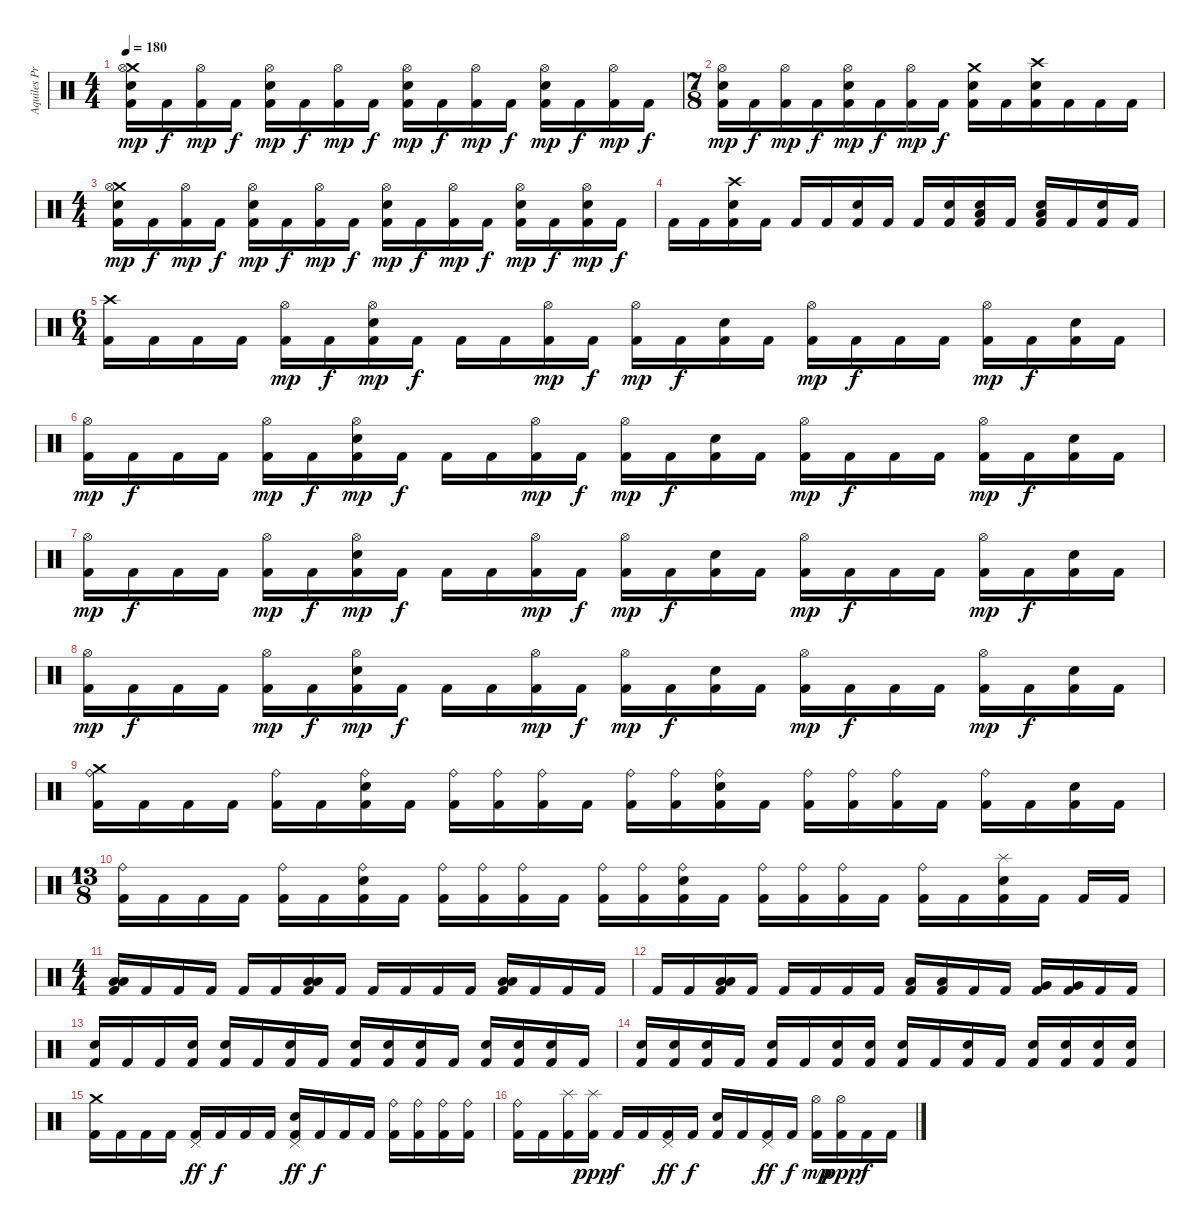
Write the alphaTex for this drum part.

\track ("Aquiles Priester" "Aquiles Pr") {instrument percussion}
\staff {score}
\articulation defaults
\ts (4 4)
\tempo 180
\clef neutral
\ks c
("Crash medium (hit)" "Hi-Hat (open)" "Snare (hit) 2" "Kick (hit) 2").16{dy mp} "Kick (hit) 2".16{dy f} ("Hi-Hat (open)" "Kick (hit) 2").16{dy mp} "Kick (hit) 2".16{dy f} ("Hi-Hat (open)" "Snare (hit) 2" "Kick (hit) 2").16{dy mp} "Kick (hit) 2".16{dy f} ("Hi-Hat (open)" "Kick (hit) 2").16{dy mp} "Kick (hit) 2".16{dy f} ("Hi-Hat (open)" "Snare (hit) 2" "Kick (hit) 2").16{dy mp} "Kick (hit) 2".16{dy f} ("Hi-Hat (open)" "Kick (hit) 2").16{dy mp} "Kick (hit) 2".16{dy f} ("Hi-Hat (open)" "Snare (hit) 2" "Kick (hit) 2").16{dy mp} "Kick (hit) 2".16{dy f} ("Hi-Hat (open)" "Kick (hit) 2").16{dy mp} "Kick (hit) 2".16{dy f} |
\ts (7 8)
("Hi-Hat (open)" "Snare (hit) 2" "Kick (hit) 2").16{dy mp} "Kick (hit) 2".16{dy f} ("Hi-Hat (open)" "Kick (hit) 2").16{dy mp} "Kick (hit) 2".16{dy f} ("Hi-Hat (open)" "Snare (hit) 2" "Kick (hit) 2").16{dy mp} "Kick (hit) 2".16{dy f} ("Hi-Hat (open)" "Kick (hit) 2").16{dy mp} "Kick (hit) 2".16{dy f} ("Crash medium (hit)" "Snare (hit) 2" "Kick (hit) 2").16 "Kick (hit) 2".16 ("Crash high (hit)" "Snare (hit) 2" "Kick (hit) 2").16 "Kick (hit) 2".16 "Kick (hit) 2".16 "Kick (hit) 2".16 |
\ts (4 4)
("Crash medium (hit)" "Hi-Hat (open)" "Snare (hit) 2" "Kick (hit) 2").16{dy mp} "Kick (hit) 2".16{dy f} ("Hi-Hat (open)" "Kick (hit) 2").16{dy mp} "Kick (hit) 2".16{dy f} ("Hi-Hat (open)" "Snare (hit) 2" "Kick (hit) 2").16{dy mp} "Kick (hit) 2".16{dy f} ("Hi-Hat (open)" "Kick (hit) 2").16{dy mp} "Kick (hit) 2".16{dy f} ("Hi-Hat (open)" "Snare (hit) 2" "Kick (hit) 2").16{dy mp} "Kick (hit) 2".16{dy f} ("Hi-Hat (open)" "Kick (hit) 2").16{dy mp} "Kick (hit) 2".16{dy f} ("Hi-Hat (open)" "Snare (hit) 2" "Kick (hit) 2").16{dy mp} "Kick (hit) 2".16{dy f} ("Hi-Hat (open)" "Snare (hit) 2" "Kick (hit) 2").16{dy mp} "Kick (hit) 2".16{dy f} |
"Kick (hit) 2".16 "Kick (hit) 2".16 ("Crash high (hit)" "Snare (hit) 2" "Kick (hit) 2").16 "Kick (hit) 2".16 "Kick (hit) 2".16 "Kick (hit) 2".16 ("Snare (hit) 2" "Kick (hit) 2").16 "Kick (hit) 2".16 "Kick (hit) 2".16 ("Snare (hit) 2" "Kick (hit) 2").16 ("Low Tom (hit)" "Snare (hit) 2" "Kick (hit) 2").16 "Kick (hit) 2".16 ("Low Tom (hit)" "Snare (hit) 2" "Kick (hit) 2").16 "Kick (hit) 2".16 ("Snare (hit) 2" "Kick (hit) 2").16 "Kick (hit) 2".16 |
\ts (6 4)
("Crash high (hit)" "Kick (hit) 2").16 "Kick (hit) 2".16 "Kick (hit) 2".16 "Kick (hit) 2".16 ("Hi-Hat (open)" "Kick (hit) 2").16{dy mp} "Kick (hit) 2".16{dy f} ("Hi-Hat (open)" "Snare (hit) 2" "Kick (hit) 2").16{dy mp} "Kick (hit) 2".16{dy f} "Kick (hit) 2".16 "Kick (hit) 2".16 ("Hi-Hat (open)" "Kick (hit) 2").16{dy mp} "Kick (hit) 2".16{dy f} ("Hi-Hat (open)" "Kick (hit) 2").16{dy mp} "Kick (hit) 2".16{dy f} ("Snare (hit) 2" "Kick (hit) 2").16 "Kick (hit) 2".16 ("Hi-Hat (open)" "Kick (hit) 2").16{dy mp} "Kick (hit) 2".16{dy f} "Kick (hit) 2".16 "Kick (hit) 2".16 ("Hi-Hat (open)" "Kick (hit) 2").16{dy mp} "Kick (hit) 2".16{dy f} ("Snare (hit) 2" "Kick (hit) 2").16 "Kick (hit) 2".16 |
("Hi-Hat (open)" "Kick (hit) 2").16{dy mp} "Kick (hit) 2".16{dy f} "Kick (hit) 2".16 "Kick (hit) 2".16 ("Hi-Hat (open)" "Kick (hit) 2").16{dy mp} "Kick (hit) 2".16{dy f} ("Hi-Hat (open)" "Snare (hit) 2" "Kick (hit) 2").16{dy mp} "Kick (hit) 2".16{dy f} "Kick (hit) 2".16 "Kick (hit) 2".16 ("Hi-Hat (open)" "Kick (hit) 2").16{dy mp} "Kick (hit) 2".16{dy f} ("Hi-Hat (open)" "Kick (hit) 2").16{dy mp} "Kick (hit) 2".16{dy f} ("Snare (hit) 2" "Kick (hit) 2").16 "Kick (hit) 2".16 ("Hi-Hat (open)" "Kick (hit) 2").16{dy mp} "Kick (hit) 2".16{dy f} "Kick (hit) 2".16 "Kick (hit) 2".16 ("Hi-Hat (open)" "Kick (hit) 2").16{dy mp} "Kick (hit) 2".16{dy f} ("Snare (hit) 2" "Kick (hit) 2").16 "Kick (hit) 2".16 |
("Hi-Hat (open)" "Kick (hit) 2").16{dy mp} "Kick (hit) 2".16{dy f} "Kick (hit) 2".16 "Kick (hit) 2".16 ("Hi-Hat (open)" "Kick (hit) 2").16{dy mp} "Kick (hit) 2".16{dy f} ("Hi-Hat (open)" "Snare (hit) 2" "Kick (hit) 2").16{dy mp} "Kick (hit) 2".16{dy f} "Kick (hit) 2".16 "Kick (hit) 2".16 ("Hi-Hat (open)" "Kick (hit) 2").16{dy mp} "Kick (hit) 2".16{dy f} ("Hi-Hat (open)" "Kick (hit) 2").16{dy mp} "Kick (hit) 2".16{dy f} ("Snare (hit) 2" "Kick (hit) 2").16 "Kick (hit) 2".16 ("Hi-Hat (open)" "Kick (hit) 2").16{dy mp} "Kick (hit) 2".16{dy f} "Kick (hit) 2".16 "Kick (hit) 2".16 ("Hi-Hat (open)" "Kick (hit) 2").16{dy mp} "Kick (hit) 2".16{dy f} ("Snare (hit) 2" "Kick (hit) 2").16 "Kick (hit) 2".16 |
("Hi-Hat (open)" "Kick (hit) 2").16{dy mp} "Kick (hit) 2".16{dy f} "Kick (hit) 2".16 "Kick (hit) 2".16 ("Hi-Hat (open)" "Kick (hit) 2").16{dy mp} "Kick (hit) 2".16{dy f} ("Hi-Hat (open)" "Snare (hit) 2" "Kick (hit) 2").16{dy mp} "Kick (hit) 2".16{dy f} "Kick (hit) 2".16 "Kick (hit) 2".16 ("Hi-Hat (open)" "Kick (hit) 2").16{dy mp} "Kick (hit) 2".16{dy f} ("Hi-Hat (open)" "Kick (hit) 2").16{dy mp} "Kick (hit) 2".16{dy f} ("Snare (hit) 2" "Kick (hit) 2").16 "Kick (hit) 2".16 ("Hi-Hat (open)" "Kick (hit) 2").16{dy mp} "Kick (hit) 2".16{dy f} "Kick (hit) 2".16 "Kick (hit) 2".16 ("Hi-Hat (open)" "Kick (hit) 2").16{dy mp} "Kick (hit) 2".16{dy f} ("Snare (hit) 2" "Kick (hit) 2").16 "Kick (hit) 2".16 |
("Crash medium (hit)" "Ride (bell)" "Kick (hit) 2").16 "Kick (hit) 2".16 "Kick (hit) 2".16 "Kick (hit) 2".16 ("Ride (bell)" "Kick (hit) 2").16 "Kick (hit) 2".16 ("Ride (bell)" "Snare (hit) 2" "Kick (hit) 2").16 "Kick (hit) 2".16 ("Ride (bell)" "Kick (hit) 2").16 ("Ride (bell)" "Kick (hit) 2").16 ("Ride (bell)" "Kick (hit) 2").16 "Kick (hit) 2".16 ("Ride (bell)" "Kick (hit) 2").16 ("Ride (bell)" "Kick (hit) 2").16 ("Ride (bell)" "Snare (hit) 2" "Kick (hit) 2").16 "Kick (hit) 2".16 ("Ride (bell)" "Kick (hit) 2").16 ("Ride (bell)" "Kick (hit) 2").16 ("Ride (bell)" "Kick (hit) 2").16 "Kick (hit) 2".16 ("Ride (bell)" "Kick (hit) 2").16 "Kick (hit) 2".16 ("Snare (hit) 2" "Kick (hit) 2").16 "Kick (hit) 2".16 |
\ts (13 8)
("Ride (bell)" "Kick (hit) 2").16 "Kick (hit) 2".16 "Kick (hit) 2".16 "Kick (hit) 2".16 ("Ride (bell)" "Kick (hit) 2").16 "Kick (hit) 2".16 ("Ride (bell)" "Snare (hit) 2" "Kick (hit) 2").16 "Kick (hit) 2".16 ("Ride (bell)" "Kick (hit) 2").16 ("Ride (bell)" "Kick (hit) 2").16 ("Ride (bell)" "Kick (hit) 2").16 "Kick (hit) 2".16 ("Ride (bell)" "Kick (hit) 2").16 ("Ride (bell)" "Kick (hit) 2").16 ("Ride (bell)" "Snare (hit) 2" "Kick (hit) 2").16 "Kick (hit) 2".16 ("Ride (bell)" "Kick (hit) 2").16 ("Ride (bell)" "Kick (hit) 2").16 ("Ride (bell)" "Kick (hit) 2").16 "Kick (hit) 2".16 ("Ride (bell)" "Kick (hit) 2").16 "Kick (hit) 2".16 ("Splash (hit)" "Snare (hit) 2" "Kick (hit) 2").16 "Kick (hit) 2".16 "Kick (hit) 2".16 "Kick (hit) 2".16 |
\ts (4 4)
("Low Tom (hit)" "Low Floor Tom (hit)" "Kick (hit) 2").16 "Kick (hit) 2".16 "Kick (hit) 2".16 "Kick (hit) 2".16 "Kick (hit) 2".16 "Kick (hit) 2".16 ("Low Tom (hit)" "Low Floor Tom (hit)" "Kick (hit) 2").16 "Kick (hit) 2".16 "Kick (hit) 2".16 "Kick (hit) 2".16 "Kick (hit) 2".16 "Kick (hit) 2".16 ("Low Tom (hit)" "Low Floor Tom (hit)" "Kick (hit) 2").16 "Kick (hit) 2".16 "Kick (hit) 2".16 "Kick (hit) 2".16 |
"Kick (hit) 2".16 "Kick (hit) 2".16 ("Low Tom (hit)" "Low Floor Tom (hit)" "Kick (hit) 2").16 "Kick (hit) 2".16 "Kick (hit) 2".16 "Kick (hit) 2".16 "Kick (hit) 2".16 "Kick (hit) 2".16 ("Low Tom (hit)" "Kick (hit) 2").16 ("Low Tom (hit)" "Kick (hit) 2").16 "Kick (hit) 2".16 "Kick (hit) 2".16 ("Very Low Tom (hit)" "Kick (hit) 2").16 ("Very Low Tom (hit)" "Kick (hit) 2").16 "Kick (hit) 2".16 "Kick (hit) 2".16 |
("Snare (hit) 2" "Kick (hit) 2").16 "Kick (hit) 2".16 "Kick (hit) 2".16 ("Snare (hit) 2" "Kick (hit) 2").16 ("Snare (hit) 2" "Kick (hit) 2").16 "Kick (hit) 2".16 ("Snare (hit) 2" "Kick (hit) 2").16 "Kick (hit) 2".16 ("Snare (hit) 2" "Kick (hit) 2").16 ("Snare (hit) 2" "Kick (hit) 2").16 ("Snare (hit) 2" "Kick (hit) 2").16 "Kick (hit) 2".16 ("Snare (hit) 2" "Kick (hit) 2").16 ("Snare (hit) 2" "Kick (hit) 2").16 ("Snare (hit) 2" "Kick (hit) 2").16 "Kick (hit) 2".16 |
("Snare (hit) 2" "Kick (hit) 2").16 ("Snare (hit) 2" "Kick (hit) 2").16 ("Snare (hit) 2" "Kick (hit) 2").16 "Kick (hit) 2".16 ("Snare (hit) 2" "Kick (hit) 2").16 "Kick (hit) 2".16 ("Snare (hit) 2" "Kick (hit) 2").16 ("Snare (hit) 2" "Kick (hit) 2").16 ("Snare (hit) 2" "Kick (hit) 2").16 "Kick (hit) 2".16 ("Snare (hit) 2" "Kick (hit) 2").16 "Kick (hit) 2".16 ("Snare (hit) 2" "Kick (hit) 2").16 ("Snare (hit) 2" "Kick (hit) 2").16 ("Snare (hit) 2" "Kick (hit) 2").16 ("Snare (hit) 2" "Kick (hit) 2").16 |
("Crash medium (hit)" "Kick (hit) 2").16 "Kick (hit) 2".16 "Kick (hit) 2".16 "Kick (hit) 2".16 ("Pedal Hi-Hat (hit)" "Kick (hit) 2").16{dy ff} "Kick (hit) 2".16{dy f} "Kick (hit) 2".16 "Kick (hit) 2".16 ("Pedal Hi-Hat (hit)" "Snare (hit) 2" "Kick (hit) 2").16{dy ff} "Kick (hit) 2".16{dy f} "Kick (hit) 2".16 "Kick (hit) 2".16 ("Ride (bell)" "Kick (hit) 2").16 ("Ride (bell)" "Kick (hit) 2").16 ("Ride (bell)" "Kick (hit) 2").16 ("Ride (bell)" "Kick (hit) 2").16 |
("Ride (bell)" "Kick (hit) 2").16 "Kick (hit) 2".16 ("Splash (hit)" "Kick (hit) 2").16 ("Splash (hit)" "Kick (hit) 2").16{dy ppp} "Kick (hit) 2".16{dy f} "Kick (hit) 2".16 ("Pedal Hi-Hat (hit)" "Kick (hit) 2").16{dy ff} "Kick (hit) 2".16{dy f} ("Snare (hit) 2" "Kick (hit) 2").16 "Kick (hit) 2".16 ("Pedal Hi-Hat (hit)" "Kick (hit) 2").16{dy ff} "Kick (hit) 2".16{dy f} ("Hi-Hat (open)" "Kick (hit) 2").16{dy mp} ("Hi-Hat (open)" "Kick (hit) 2").16{dy ppp} "Kick (hit) 2".16{dy f} "Kick (hit) 2".16
